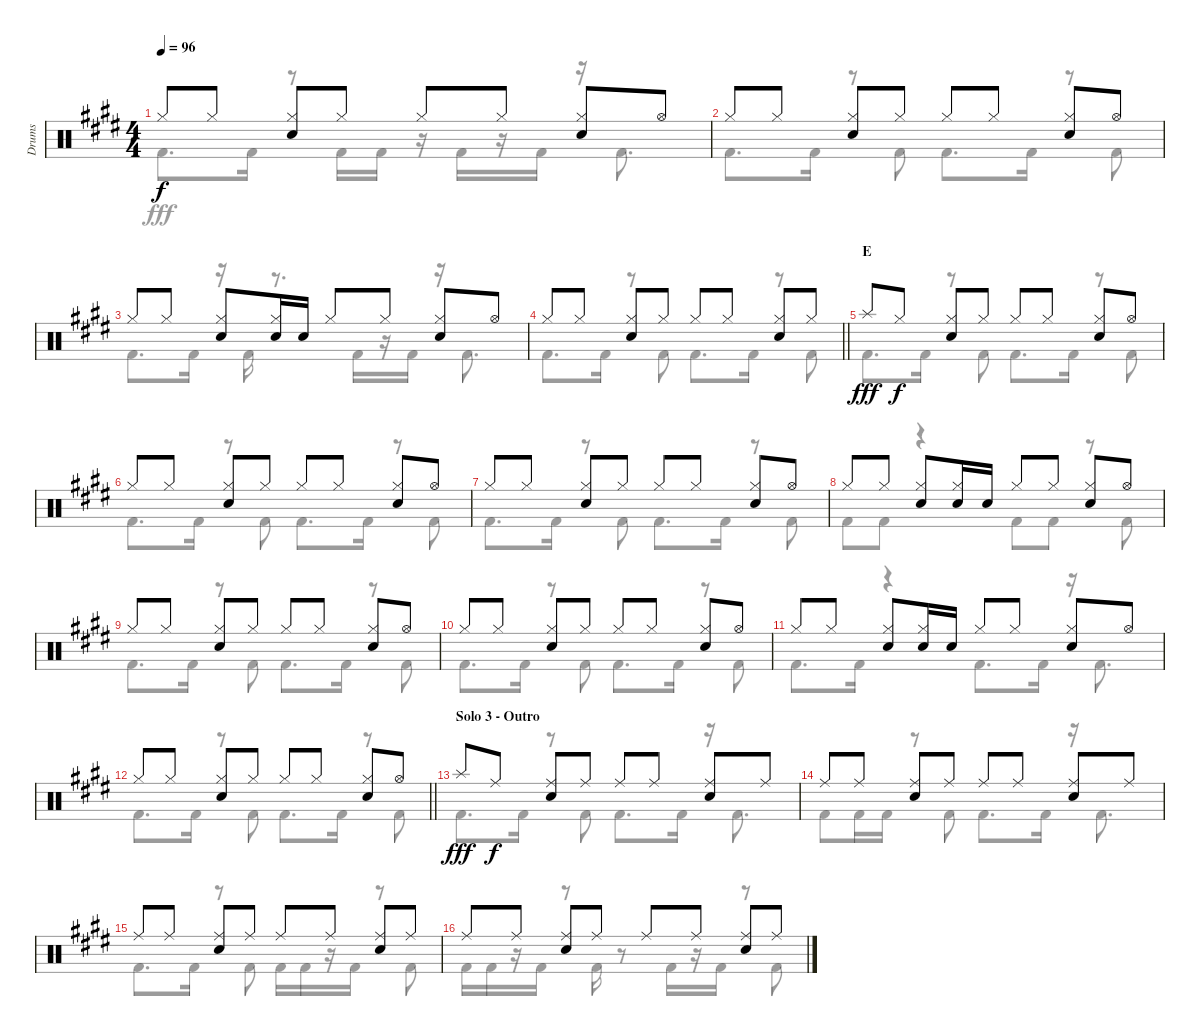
\track ("Drums" "Drums") {instrument percussion}
\staff {score}
\articulation defaults
\voice
\ts (4 4)
\tempo 96
\clef neutral
\ks e "Hi-Hat (closed)".8{dy f} "Hi-Hat (closed)".8
("Hi-Hat (closed)" "Snare (hit) 2").8 "Hi-Hat (closed)".8 "Hi-Hat (closed)".8 "Hi-Hat (closed)".8 ("Hi-Hat (closed)" "Snare (hit) 2").8 "Hi-Hat (open)".8 |
"Hi-Hat (closed)".8 "Hi-Hat (closed)".8 ("Hi-Hat (closed)" "Snare (hit) 2").8 "Hi-Hat (closed)".8 "Hi-Hat (closed)".8 "Hi-Hat (closed)".8 ("Hi-Hat (closed)" "Snare (hit) 2").8 "Hi-Hat (open)".8 |
"Hi-Hat (closed)".8 "Hi-Hat (closed)".8 ("Hi-Hat (closed)" "Snare (hit) 2").8 ("Hi-Hat (closed)" "Snare (hit) 2").16 "Snare (hit) 2".16 "Hi-Hat (closed)".8 "Hi-Hat (closed)".8 ("Hi-Hat (closed)" "Snare (hit) 2").8 "Hi-Hat (open)".8 |
\barLineRight lightlight "Hi-Hat (closed)".8 "Hi-Hat (closed)".8
("Hi-Hat (closed)" "Snare (hit) 2").8 "Hi-Hat (closed)".8 "Hi-Hat (closed)".8 "Hi-Hat (closed)".8 ("Hi-Hat (closed)" "Snare (hit) 2").8 "Hi-Hat (closed)".8 |
\section ("" "E")
"Splash (hit)".8{dy fff} "Hi-Hat (closed)".8{dy f} ("Hi-Hat (closed)" "Snare (hit) 2").8 "Hi-Hat (closed)".8 "Hi-Hat (closed)".8 "Hi-Hat (closed)".8 ("Hi-Hat (closed)" "Snare (hit) 2").8 "Hi-Hat (open)".8 |
"Hi-Hat (closed)".8 "Hi-Hat (closed)".8 ("Hi-Hat (closed)" "Snare (hit) 2").8 "Hi-Hat (closed)".8 "Hi-Hat (closed)".8 "Hi-Hat (closed)".8 ("Hi-Hat (closed)" "Snare (hit) 2").8 "Hi-Hat (open)".8 |
"Hi-Hat (closed)".8 "Hi-Hat (closed)".8 ("Hi-Hat (closed)" "Snare (hit) 2").8 "Hi-Hat (closed)".8 "Hi-Hat (closed)".8 "Hi-Hat (closed)".8 ("Hi-Hat (closed)" "Snare (hit) 2").8 "Hi-Hat (open)".8 |
"Hi-Hat (closed)".8 "Hi-Hat (closed)".8 ("Hi-Hat (closed)" "Snare (hit) 2").8 ("Hi-Hat (closed)" "Snare (hit) 2").16 "Snare (hit) 2".16 "Hi-Hat (closed)".8 "Hi-Hat (closed)".8 ("Hi-Hat (closed)" "Snare (hit) 2").8 "Hi-Hat (open)".8 |
"Hi-Hat (closed)".8 "Hi-Hat (closed)".8 ("Hi-Hat (closed)" "Snare (hit) 2").8 "Hi-Hat (closed)".8 "Hi-Hat (closed)".8 "Hi-Hat (closed)".8 ("Hi-Hat (closed)" "Snare (hit) 2").8 "Hi-Hat (open)".8 |
"Hi-Hat (closed)".8 "Hi-Hat (closed)".8 ("Hi-Hat (closed)" "Snare (hit) 2").8 "Hi-Hat (closed)".8 "Hi-Hat (closed)".8 "Hi-Hat (closed)".8 ("Hi-Hat (closed)" "Snare (hit) 2").8 "Hi-Hat (open)".8 |
"Hi-Hat (closed)".8 "Hi-Hat (closed)".8 ("Hi-Hat (closed)" "Snare (hit) 2").8 ("Hi-Hat (closed)" "Snare (hit) 2").16 "Snare (hit) 2".16 "Hi-Hat (closed)".8 "Hi-Hat (closed)".8 ("Hi-Hat (closed)" "Snare (hit) 2").8 "Hi-Hat (open)".8 |
\barLineRight lightlight "Hi-Hat (closed)".8 "Hi-Hat (closed)".8
("Hi-Hat (closed)" "Snare (hit) 2").8 "Hi-Hat (closed)".8 "Hi-Hat (closed)".8 "Hi-Hat (closed)".8 ("Hi-Hat (closed)" "Snare (hit) 2").8 "Hi-Hat (open)".8 |
\section ("" "Solo 3 - Outro")
"Splash (hit)".8{dy fff} "Ride (middle)".8{dy f} ("Ride (middle)" "Snare (hit) 2").8 "Ride (middle)".8 "Ride (middle)".8 "Ride (middle)".8 ("Ride (middle)" "Snare (hit) 2").8 "Ride (middle)".8 |
"Ride (middle)".8 "Ride (middle)".8 ("Ride (middle)" "Snare (hit) 2").8 "Ride (middle)".8 "Ride (middle)".8 "Ride (middle)".8 ("Ride (middle)" "Snare (hit) 2").8 "Ride (middle)".8 |
"Ride (middle)".8 "Ride (middle)".8 ("Ride (middle)" "Snare (hit) 2").8 "Ride (middle)".8 "Ride (middle)".8 "Ride (middle)".8 ("Ride (middle)" "Snare (hit) 2").8 "Ride (middle)".8 |
"Ride (middle)".8 "Ride (middle)".8 ("Ride (middle)" "Snare (hit) 2").8 "Ride (middle)".8 "Ride (middle)".8 "Ride (middle)".8 ("Ride (middle)" "Snare (hit) 2").8 "Ride (middle)".8
\voice
\clef neutral
\ottava regular
\simile none
\ks e "Kick (hit) 2".8{d dy fff} "Kick (hit) 2".16
r.8 "Kick (hit) 2".16 "Kick (hit) 2".16 r.16 "Kick (hit) 2".16 r.16 "Kick (hit) 2".16 r.16 "Kick (hit) 2".8{d} |
"Kick (hit) 2".8{d} "Kick (hit) 2".16 r.8 "Kick (hit) 2".8 "Kick (hit) 2".8{d} "Kick (hit) 2".16 r.8 "Kick (hit) 2".8 |
"Kick (hit) 2".8{d} "Kick (hit) 2".16 r.16 "Kick (hit) 2".16 r.8{d} "Kick (hit) 2".16 r.16 "Kick (hit) 2".16 r.16 "Kick (hit) 2".8{d} |
\barLineRight lightlight "Kick (hit) 2".8{d} "Kick (hit) 2".16
r.8 "Kick (hit) 2".8 "Kick (hit) 2".8{d} "Kick (hit) 2".16 r.8 "Kick (hit) 2".8 |
"Kick (hit) 2".8{d} "Kick (hit) 2".16 r.8 "Kick (hit) 2".8 "Kick (hit) 2".8{d} "Kick (hit) 2".16 r.8 "Kick (hit) 2".8 |
"Kick (hit) 2".8{d} "Kick (hit) 2".16 r.8 "Kick (hit) 2".8 "Kick (hit) 2".8{d} "Kick (hit) 2".16 r.8 "Kick (hit) 2".8 |
"Kick (hit) 2".8{d} "Kick (hit) 2".16 r.8 "Kick (hit) 2".8 "Kick (hit) 2".8{d} "Kick (hit) 2".16 r.8 "Kick (hit) 2".8 |
"Kick (hit) 2".8 "Kick (hit) 2".8 r.4 "Kick (hit) 2".8 "Kick (hit) 2".8 r.8 "Kick (hit) 2".8 |
"Kick (hit) 2".8{d} "Kick (hit) 2".16 r.8 "Kick (hit) 2".8 "Kick (hit) 2".8{d} "Kick (hit) 2".16 r.8 "Kick (hit) 2".8 |
"Kick (hit) 2".8{d} "Kick (hit) 2".16 r.8 "Kick (hit) 2".8 "Kick (hit) 2".8{d} "Kick (hit) 2".16 r.8 "Kick (hit) 2".8 |
"Kick (hit) 2".8{d} "Kick (hit) 2".16 r.4 "Kick (hit) 2".8{d} "Kick (hit) 2".16 r.16 "Kick (hit) 2".8{d} |
\barLineRight lightlight "Kick (hit) 2".8{d} "Kick (hit) 2".16
r.8 "Kick (hit) 2".8 "Kick (hit) 2".8{d} "Kick (hit) 2".16 r.8 "Kick (hit) 2".8 |
"Kick (hit) 2".8{d} "Kick (hit) 2".16 r.8 "Kick (hit) 2".8 "Kick (hit) 2".8{d} "Kick (hit) 2".16 r.16 "Kick (hit) 2".8{d} |
"Kick (hit) 2".8 "Kick (hit) 2".16 "Kick (hit) 2".16 r.8 "Kick (hit) 2".8 "Kick (hit) 2".8{d} "Kick (hit) 2".16 r.16 "Kick (hit) 2".8{d} |
"Kick (hit) 2".8{d} "Kick (hit) 2".16 r.8 "Kick (hit) 2".8 "Kick (hit) 2".16 "Kick (hit) 2".16 r.16 "Kick (hit) 2".16 r.8 "Kick (hit) 2".8 |
"Kick (hit) 2".16 "Kick (hit) 2".16 r.16 "Kick (hit) 2".16 r.8 "Kick (hit) 2".16 r.8 "Kick (hit) 2".16 r.16 "Kick (hit) 2".16 r.8 "Kick (hit) 2".8
